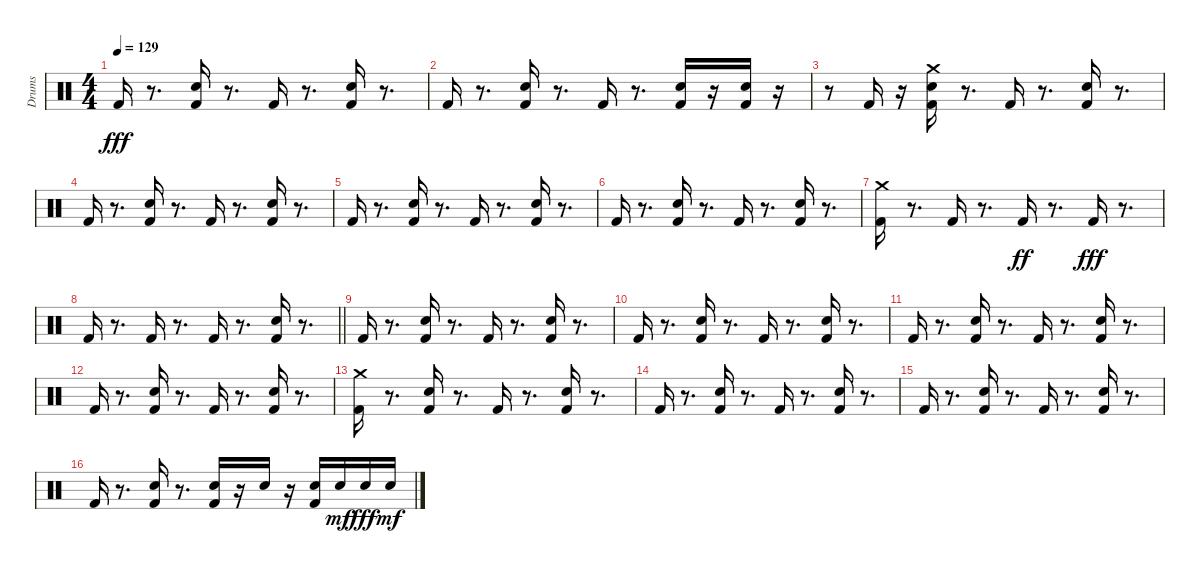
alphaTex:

\track ("Drums" "Drums") {instrument percussion}
\staff {score}
\articulation defaults
\ts (4 4)
\tempo 129
\clef neutral
\ks c "Kick (hit) 2".16{dy fff}
r.8{d} ("Kick (hit) 2" "Electric Snare (hit)").16 r.8{d} "Kick (hit) 2".16 r.8{d} ("Kick (hit) 2" "Electric Snare (hit)").16 r.8{d} |
"Kick (hit) 2".16 r.8{d} ("Kick (hit) 2" "Electric Snare (hit)").16 r.8{d} "Kick (hit) 2".16 r.8{d} ("Kick (hit) 2" "Electric Snare (hit)").16 r.16 ("Kick (hit) 2" "Electric Snare (hit)").16 r.16 |
r.8 "Kick (hit) 2".16 r.16 ("Crash medium (hit)" "Kick (hit) 2" "Electric Snare (hit)").16 r.8{d} "Kick (hit) 2".16 r.8{d} ("Kick (hit) 2" "Electric Snare (hit)").16 r.8{d} |
"Kick (hit) 2".16 r.8{d} ("Kick (hit) 2" "Electric Snare (hit)").16 r.8{d} "Kick (hit) 2".16 r.8{d} ("Kick (hit) 2" "Electric Snare (hit)").16 r.8{d} |
"Kick (hit) 2".16 r.8{d} ("Kick (hit) 2" "Electric Snare (hit)").16 r.8{d} "Kick (hit) 2".16 r.8{d} ("Kick (hit) 2" "Electric Snare (hit)").16 r.8{d} |
"Kick (hit) 2".16 r.8{d} ("Kick (hit) 2" "Electric Snare (hit)").16 r.8{d} "Kick (hit) 2".16 r.8{d} ("Kick (hit) 2" "Electric Snare (hit)").16 r.8{d} |
("Crash medium (hit)" "Kick (hit) 2").16 r.8{d} "Kick (hit) 2".16 r.8{d} "Kick (hit) 2".16{dy ff} r.8{d} "Kick (hit) 2".16{dy fff} r.8{d} |
\barLineRight lightlight "Kick (hit) 2".16
r.8{d} "Kick (hit) 2".16 r.8{d} "Kick (hit) 2".16 r.8{d} ("Kick (hit) 2" "Electric Snare (hit)").16 r.8{d} |
"Kick (hit) 2".16 r.8{d} ("Kick (hit) 2" "Electric Snare (hit)").16 r.8{d} "Kick (hit) 2".16 r.8{d} ("Kick (hit) 2" "Electric Snare (hit)").16 r.8{d} |
"Kick (hit) 2".16 r.8{d} ("Kick (hit) 2" "Electric Snare (hit)").16 r.8{d} "Kick (hit) 2".16 r.8{d} ("Kick (hit) 2" "Electric Snare (hit)").16 r.8{d} |
"Kick (hit) 2".16 r.8{d} ("Kick (hit) 2" "Electric Snare (hit)").16 r.8{d} "Kick (hit) 2".16 r.8{d} ("Kick (hit) 2" "Electric Snare (hit)").16 r.8{d} |
"Kick (hit) 2".16 r.8{d} ("Kick (hit) 2" "Electric Snare (hit)").16 r.8{d} "Kick (hit) 2".16 r.8{d} ("Kick (hit) 2" "Electric Snare (hit)").16 r.8{d} |
("Crash medium (hit)" "Kick (hit) 2").16 r.8{d} ("Kick (hit) 2" "Electric Snare (hit)").16 r.8{d} "Kick (hit) 2".16 r.8{d} ("Kick (hit) 2" "Electric Snare (hit)").16 r.8{d} |
"Kick (hit) 2".16 r.8{d} ("Kick (hit) 2" "Electric Snare (hit)").16 r.8{d} "Kick (hit) 2".16 r.8{d} ("Kick (hit) 2" "Electric Snare (hit)").16 r.8{d} |
"Kick (hit) 2".16 r.8{d} ("Kick (hit) 2" "Electric Snare (hit)").16 r.8{d} "Kick (hit) 2".16 r.8{d} ("Kick (hit) 2" "Electric Snare (hit)").16 r.8{d} |
"Kick (hit) 2".16 r.8{d} ("Kick (hit) 2" "Electric Snare (hit)").16 r.8{d} ("Kick (hit) 2" "Electric Snare (hit)").16 r.16 "Electric Snare (hit)".16 r.16 ("Kick (hit) 2" "Electric Snare (hit)").16 "Electric Snare (hit)".16{dy mf} "Electric Snare (hit)".16{dy fff} "Electric Snare (hit)".16{dy mf}
